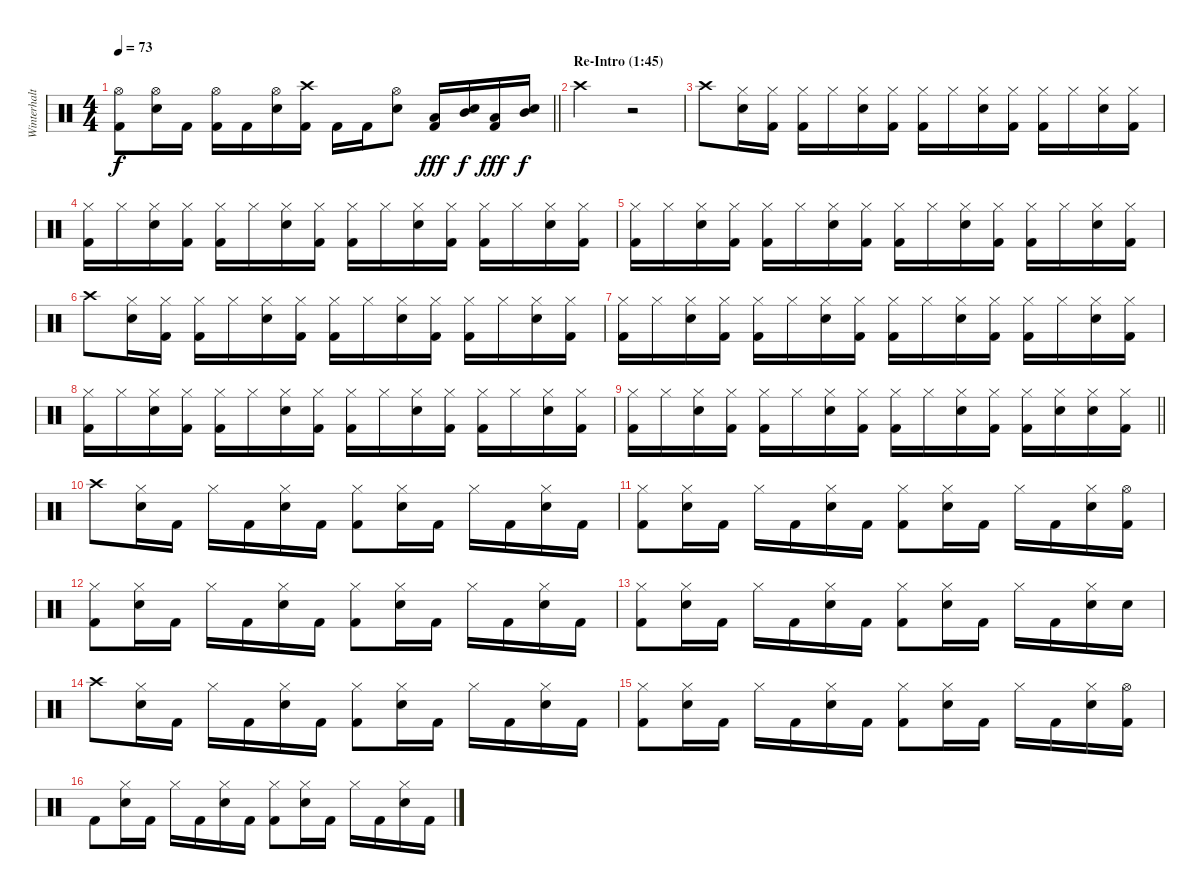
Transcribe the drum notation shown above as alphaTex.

\track ("Winterhalten" "Winterhalt") {instrument percussion}
\staff {score}
\articulation defaults
\ts (4 4)
\tempo 73
\clef neutral
\barLineRight lightlight
\ks c
("Kick (hit) 2" "Hi-Hat (open)").8{dy f} ("Hi-Hat (open)" "Snare (hit) 2").16 "Kick (hit) 2".16 ("Kick (hit) 2" "Hi-Hat (open)").16 "Kick (hit) 2".16 ("Hi-Hat (open)" "Snare (hit) 2").16 ("Kick (hit) 2" "Crash high (hit)").16 "Kick (hit) 2".16 "Kick (hit) 2".16 ("Hi-Hat (open)" "Snare (hit) 2").8 ("Low Tom (hit)" "Kick (hit) 2").16{dy fff beam merge} ("Mid Tom (hit)" "Snare (hit) 2").16{dy f beam merge} ("Low Tom (hit)" "Kick (hit) 2").16{dy fff beam merge} ("Mid Tom (hit)" "Snare (hit) 2").16{dy f} |
\section ("" "Re-Intro (1:45)")
"Crash high (hit)".2 r.2 |
"Crash high (hit)".8 ("Hi-Hat (closed)" "Snare (hit) 2").16 ("Kick (hit) 2" "Hi-Hat (closed)").16 ("Kick (hit) 2" "Hi-Hat (closed)").16 "Hi-Hat (closed)".16 ("Hi-Hat (closed)" "Snare (hit) 2").16 ("Kick (hit) 2" "Hi-Hat (closed)").16 ("Kick (hit) 2" "Hi-Hat (closed)").16 "Hi-Hat (closed)".16 ("Hi-Hat (closed)" "Snare (hit) 2").16 ("Kick (hit) 2" "Hi-Hat (closed)").16 ("Kick (hit) 2" "Hi-Hat (closed)").16 "Hi-Hat (closed)".16 ("Hi-Hat (closed)" "Snare (hit) 2").16 ("Kick (hit) 2" "Hi-Hat (closed)").16 |
("Kick (hit) 2" "Hi-Hat (closed)").16 "Hi-Hat (closed)".16 ("Hi-Hat (closed)" "Snare (hit) 2").16 ("Kick (hit) 2" "Hi-Hat (closed)").16 ("Kick (hit) 2" "Hi-Hat (closed)").16 "Hi-Hat (closed)".16 ("Hi-Hat (closed)" "Snare (hit) 2").16 ("Kick (hit) 2" "Hi-Hat (closed)").16 ("Kick (hit) 2" "Hi-Hat (closed)").16 "Hi-Hat (closed)".16 ("Hi-Hat (closed)" "Snare (hit) 2").16 ("Kick (hit) 2" "Hi-Hat (closed)").16 ("Kick (hit) 2" "Hi-Hat (closed)").16 "Hi-Hat (closed)".16 ("Hi-Hat (closed)" "Snare (hit) 2").16 ("Kick (hit) 2" "Hi-Hat (closed)").16 |
("Kick (hit) 2" "Hi-Hat (closed)").16 "Hi-Hat (closed)".16 ("Hi-Hat (closed)" "Snare (hit) 2").16 ("Kick (hit) 2" "Hi-Hat (closed)").16 ("Kick (hit) 2" "Hi-Hat (closed)").16 "Hi-Hat (closed)".16 ("Hi-Hat (closed)" "Snare (hit) 2").16 ("Kick (hit) 2" "Hi-Hat (closed)").16 ("Kick (hit) 2" "Hi-Hat (closed)").16 "Hi-Hat (closed)".16 ("Hi-Hat (closed)" "Snare (hit) 2").16 ("Kick (hit) 2" "Hi-Hat (closed)").16 ("Kick (hit) 2" "Hi-Hat (closed)").16 "Hi-Hat (closed)".16 ("Hi-Hat (closed)" "Snare (hit) 2").16 ("Kick (hit) 2" "Hi-Hat (closed)").16 |
"Crash high (hit)".8 ("Hi-Hat (closed)" "Snare (hit) 2").16 ("Kick (hit) 2" "Hi-Hat (closed)").16 ("Kick (hit) 2" "Hi-Hat (closed)").16 "Hi-Hat (closed)".16 ("Hi-Hat (closed)" "Snare (hit) 2").16 ("Kick (hit) 2" "Hi-Hat (closed)").16 ("Kick (hit) 2" "Hi-Hat (closed)").16 "Hi-Hat (closed)".16 ("Hi-Hat (closed)" "Snare (hit) 2").16 ("Kick (hit) 2" "Hi-Hat (closed)").16 ("Kick (hit) 2" "Hi-Hat (closed)").16 "Hi-Hat (closed)".16 ("Hi-Hat (closed)" "Snare (hit) 2").16 ("Kick (hit) 2" "Hi-Hat (closed)").16 |
("Kick (hit) 2" "Hi-Hat (closed)").16 "Hi-Hat (closed)".16 ("Hi-Hat (closed)" "Snare (hit) 2").16 ("Kick (hit) 2" "Hi-Hat (closed)").16 ("Kick (hit) 2" "Hi-Hat (closed)").16 "Hi-Hat (closed)".16 ("Hi-Hat (closed)" "Snare (hit) 2").16 ("Kick (hit) 2" "Hi-Hat (closed)").16 ("Kick (hit) 2" "Hi-Hat (closed)").16 "Hi-Hat (closed)".16 ("Hi-Hat (closed)" "Snare (hit) 2").16 ("Kick (hit) 2" "Hi-Hat (closed)").16 ("Kick (hit) 2" "Hi-Hat (closed)").16 "Hi-Hat (closed)".16 ("Hi-Hat (closed)" "Snare (hit) 2").16 ("Kick (hit) 2" "Hi-Hat (closed)").16 |
("Kick (hit) 2" "Hi-Hat (closed)").16 "Hi-Hat (closed)".16 ("Hi-Hat (closed)" "Snare (hit) 2").16 ("Kick (hit) 2" "Hi-Hat (closed)").16 ("Kick (hit) 2" "Hi-Hat (closed)").16 "Hi-Hat (closed)".16 ("Hi-Hat (closed)" "Snare (hit) 2").16 ("Kick (hit) 2" "Hi-Hat (closed)").16 ("Kick (hit) 2" "Hi-Hat (closed)").16 "Hi-Hat (closed)".16 ("Hi-Hat (closed)" "Snare (hit) 2").16 ("Kick (hit) 2" "Hi-Hat (closed)").16 ("Kick (hit) 2" "Hi-Hat (closed)").16 "Hi-Hat (closed)".16 ("Hi-Hat (closed)" "Snare (hit) 2").16 ("Kick (hit) 2" "Hi-Hat (closed)").16 |
\barLineRight lightlight
("Kick (hit) 2" "Hi-Hat (closed)").16 "Hi-Hat (closed)".16 ("Hi-Hat (closed)" "Snare (hit) 2").16 ("Kick (hit) 2" "Hi-Hat (closed)").16 ("Kick (hit) 2" "Hi-Hat (closed)").16 "Hi-Hat (closed)".16 ("Hi-Hat (closed)" "Snare (hit) 2").16 ("Kick (hit) 2" "Hi-Hat (closed)").16 ("Kick (hit) 2" "Hi-Hat (closed)").16 "Hi-Hat (closed)".16 ("Hi-Hat (closed)" "Snare (hit) 2").16 ("Kick (hit) 2" "Hi-Hat (closed)").16 ("Kick (hit) 2" "Hi-Hat (closed)").16 ("Hi-Hat (closed)" "Snare (hit) 2").16 ("Hi-Hat (closed)" "Snare (hit) 2").16 ("Kick (hit) 2" "Hi-Hat (closed)").16 |
\section ("" "")
"Crash high (hit)".8 ("Hi-Hat (closed)" "Snare (hit) 2").16 "Kick (hit) 2".16 "Hi-Hat (closed)".16 "Kick (hit) 2".16 ("Hi-Hat (closed)" "Snare (hit) 2").16 "Kick (hit) 2".16 ("Kick (hit) 2" "Hi-Hat (closed)").8 ("Hi-Hat (closed)" "Snare (hit) 2").16 "Kick (hit) 2".16 "Hi-Hat (closed)".16 "Kick (hit) 2".16 ("Hi-Hat (closed)" "Snare (hit) 2").16 "Kick (hit) 2".16 |
("Kick (hit) 2" "Hi-Hat (closed)").8 ("Hi-Hat (closed)" "Snare (hit) 2").16 "Kick (hit) 2".16 "Hi-Hat (closed)".16 "Kick (hit) 2".16 ("Hi-Hat (closed)" "Snare (hit) 2").16 "Kick (hit) 2".16 ("Kick (hit) 2" "Hi-Hat (closed)").8 ("Hi-Hat (closed)" "Snare (hit) 2").16 "Kick (hit) 2".16 "Hi-Hat (closed)".16 "Kick (hit) 2".16 ("Hi-Hat (closed)" "Snare (hit) 2").16 ("Kick (hit) 2" "Hi-Hat (open)").16 |
("Kick (hit) 2" "Hi-Hat (closed)").8 ("Hi-Hat (closed)" "Snare (hit) 2").16 "Kick (hit) 2".16 "Hi-Hat (closed)".16 "Kick (hit) 2".16 ("Hi-Hat (closed)" "Snare (hit) 2").16 "Kick (hit) 2".16 ("Kick (hit) 2" "Hi-Hat (closed)").8 ("Hi-Hat (closed)" "Snare (hit) 2").16 "Kick (hit) 2".16 "Hi-Hat (closed)".16 "Kick (hit) 2".16 ("Hi-Hat (closed)" "Snare (hit) 2").16 "Kick (hit) 2".16 |
("Kick (hit) 2" "Hi-Hat (closed)").8 ("Hi-Hat (closed)" "Snare (hit) 2").16 "Kick (hit) 2".16 "Hi-Hat (closed)".16 "Kick (hit) 2".16 ("Hi-Hat (closed)" "Snare (hit) 2").16 "Kick (hit) 2".16 ("Kick (hit) 2" "Hi-Hat (closed)").8 ("Hi-Hat (closed)" "Snare (hit) 2").16 "Kick (hit) 2".16 "Hi-Hat (closed)".16 "Kick (hit) 2".16 ("Hi-Hat (closed)" "Snare (hit) 2").16 "Snare (hit) 2".16 |
"Crash high (hit)".8 ("Hi-Hat (closed)" "Snare (hit) 2").16 "Kick (hit) 2".16 "Hi-Hat (closed)".16 "Kick (hit) 2".16 ("Hi-Hat (closed)" "Snare (hit) 2").16 "Kick (hit) 2".16 ("Kick (hit) 2" "Hi-Hat (closed)").8 ("Hi-Hat (closed)" "Snare (hit) 2").16 "Kick (hit) 2".16 "Hi-Hat (closed)".16 "Kick (hit) 2".16 ("Hi-Hat (closed)" "Snare (hit) 2").16 "Kick (hit) 2".16 |
("Kick (hit) 2" "Hi-Hat (closed)").8 ("Hi-Hat (closed)" "Snare (hit) 2").16 "Kick (hit) 2".16 "Hi-Hat (closed)".16 "Kick (hit) 2".16 ("Hi-Hat (closed)" "Snare (hit) 2").16 "Kick (hit) 2".16 ("Kick (hit) 2" "Hi-Hat (closed)").8 ("Hi-Hat (closed)" "Snare (hit) 2").16 "Kick (hit) 2".16 "Hi-Hat (closed)".16 "Kick (hit) 2".16 ("Hi-Hat (closed)" "Snare (hit) 2").16 ("Kick (hit) 2" "Hi-Hat (open)").16 |
"Kick (hit) 2".8 ("Hi-Hat (closed)" "Snare (hit) 2").16 "Kick (hit) 2".16 "Hi-Hat (closed)".16 "Kick (hit) 2".16 ("Hi-Hat (closed)" "Snare (hit) 2").16 "Kick (hit) 2".16 ("Kick (hit) 2" "Hi-Hat (closed)").8 ("Hi-Hat (closed)" "Snare (hit) 2").16 "Kick (hit) 2".16 "Hi-Hat (closed)".16 "Kick (hit) 2".16 ("Hi-Hat (closed)" "Snare (hit) 2").16 "Kick (hit) 2".16
